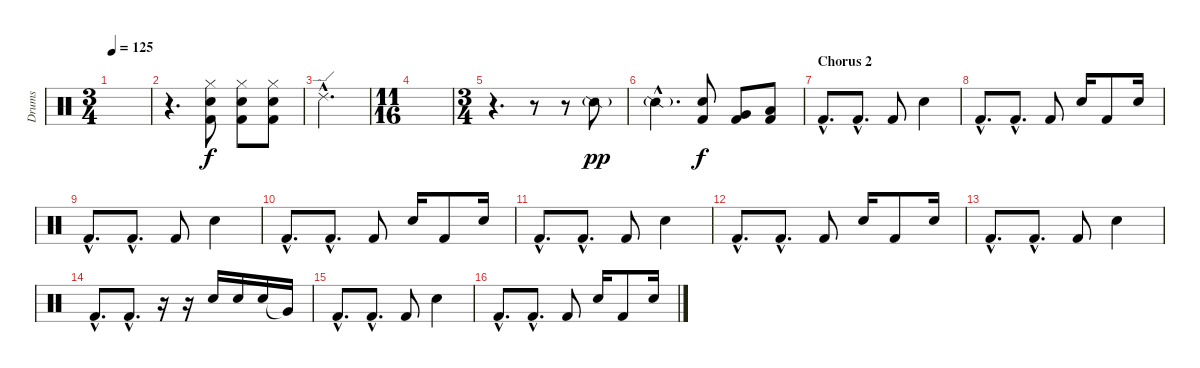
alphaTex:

\track ("Drums" "Drums") {instrument percussion}
\staff {score}
\articulation defaults
\ts (3 4)
\tempo 125
\clef neutral
\ks c
|
r.4{d} ("Hi-Hat (closed)" "Electric Snare (hit)" "Kick (hit) 2").8 ("Hi-Hat (closed)" "Electric Snare (hit)" "Kick (hit) 2").8 ("Hi-Hat (closed)" "Electric Snare (hit)" "Kick (hit) 2").8 |
"Ride (edge) 2"{hac}.2{d} |
\ts (11 16)
|
\ts (3 4)
r.4{d} r.8 r.8 "Snare (side stick) 2"{g}.8{dy pp} |
"Snare (side stick) 2"{g hac}.4{d} ("Electric Snare (hit)" "Kick (hit) 2").8{dy f} ("Very Low Tom (hit)" "Kick (hit) 2").8 ("Low Floor Tom (hit)" "Kick (hit) 2").8 |
\section ("" "Chorus 2")
"Kick (hit) 2"{hac}.8{d} "Kick (hit) 2"{hac}.8{d} "Kick (hit) 2".8 "Electric Snare (hit)".4 |
"Kick (hit) 2"{hac}.8{d} "Kick (hit) 2"{hac}.8{d} "Kick (hit) 2".8 "Electric Snare (hit)".16 "Kick (hit) 2".8 "Electric Snare (hit)".16 |
"Kick (hit) 2"{hac}.8{d} "Kick (hit) 2"{hac}.8{d} "Kick (hit) 2".8 "Electric Snare (hit)".4 |
"Kick (hit) 2"{hac}.8{d} "Kick (hit) 2"{hac}.8{d} "Kick (hit) 2".8 "Electric Snare (hit)".16 "Kick (hit) 2".8 "Electric Snare (hit)".16 |
"Kick (hit) 2"{hac}.8{d} "Kick (hit) 2"{hac}.8{d} "Kick (hit) 2".8 "Electric Snare (hit)".4 |
"Kick (hit) 2"{hac}.8{d} "Kick (hit) 2"{hac}.8{d} "Kick (hit) 2".8 "Electric Snare (hit)".16 "Kick (hit) 2".8 "Electric Snare (hit)".16 |
"Kick (hit) 2"{hac}.8{d} "Kick (hit) 2"{hac}.8{d} "Kick (hit) 2".8 "Electric Snare (hit)".4 |
"Kick (hit) 2"{hac}.8{d} "Kick (hit) 2"{hac}.8{d} r.16 r.16 "Electric Snare (hit)".16 "Electric Snare (hit)".16 "Electric Snare (hit)".16 "Very Low Tom (hit)"{t}.16 |
"Kick (hit) 2"{hac}.8{d} "Kick (hit) 2"{hac}.8{d} "Kick (hit) 2".8 "Electric Snare (hit)".4 |
"Kick (hit) 2"{hac}.8{d} "Kick (hit) 2"{hac}.8{d} "Kick (hit) 2".8 "Electric Snare (hit)".16 "Kick (hit) 2".8 "Electric Snare (hit)".16
